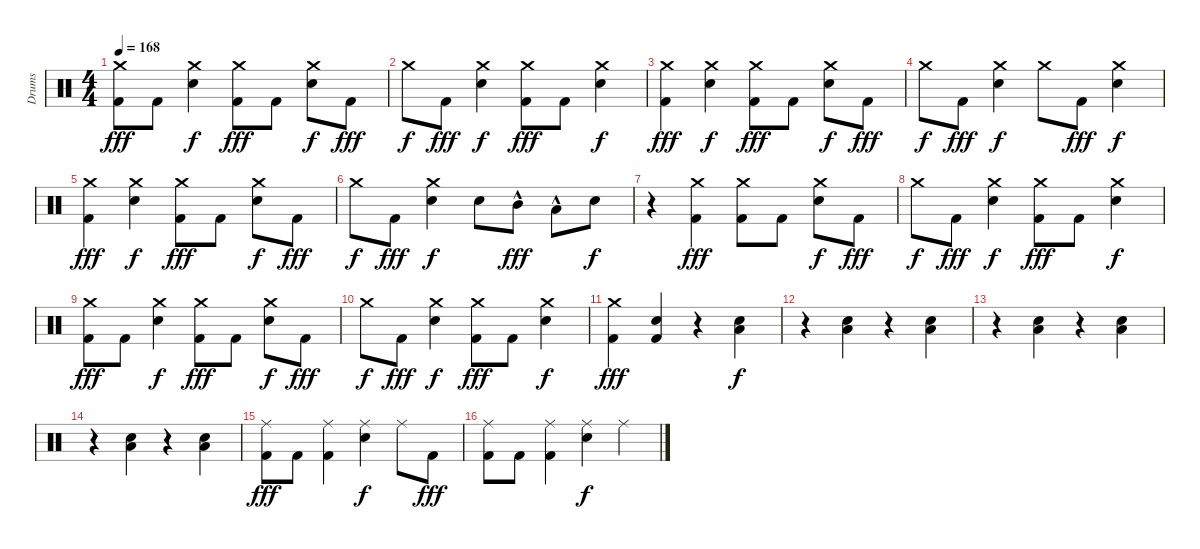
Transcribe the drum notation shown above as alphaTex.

\track ("Drums" "Drums") {instrument percussion}
\staff {score}
\articulation defaults
\ts (4 4)
\tempo 168
\clef neutral
\ks c
("Crash medium (hit)" "Kick (hit) 2").8{dy fff} "Kick (hit) 2".8 ("Crash medium (hit)" "Electric Snare (hit)").4{dy f} ("Crash medium (hit)" "Kick (hit) 2").8{dy fff} "Kick (hit) 2".8 ("Crash medium (hit)" "Electric Snare (hit)").8{dy f} "Kick (hit) 2".8{dy fff} |
"Crash medium (hit)".8{dy f} "Kick (hit) 2".8{dy fff} ("Crash medium (hit)" "Electric Snare (hit)").4{dy f} ("Crash medium (hit)" "Kick (hit) 2").8{dy fff} "Kick (hit) 2".8 ("Crash medium (hit)" "Electric Snare (hit)").4{dy f} |
("Crash medium (hit)" "Kick (hit) 2").4{dy fff} ("Crash medium (hit)" "Electric Snare (hit)").4{dy f} ("Crash medium (hit)" "Kick (hit) 2").8{dy fff} "Kick (hit) 2".8 ("Crash medium (hit)" "Electric Snare (hit)").8{dy f} "Kick (hit) 2".8{dy fff} |
"Crash medium (hit)".8{dy f} "Kick (hit) 2".8{dy fff} ("Crash medium (hit)" "Electric Snare (hit)").4{dy f} "Crash medium (hit)".8 "Kick (hit) 2".8{dy fff} ("Crash medium (hit)" "Electric Snare (hit)").4{dy f} |
("Crash medium (hit)" "Kick (hit) 2").4{dy fff} ("Crash medium (hit)" "Electric Snare (hit)").4{dy f} ("Crash medium (hit)" "Kick (hit) 2").8{dy fff} "Kick (hit) 2".8 ("Crash medium (hit)" "Electric Snare (hit)").8{dy f} "Kick (hit) 2".8{dy fff} |
"Crash medium (hit)".8{dy f} "Kick (hit) 2".8{dy fff} ("Crash medium (hit)" "Electric Snare (hit)").4{dy f} "Electric Snare (hit)".8 "Mid Tom (hit)"{hac}.8{dy fff} "Low Tom (hit)"{hac}.8 "Electric Snare (hit)".8{dy f} |
r.4 ("Crash medium (hit)" "Kick (hit) 2").4{dy fff} ("Crash medium (hit)" "Kick (hit) 2").8 "Kick (hit) 2".8 ("Crash medium (hit)" "Electric Snare (hit)").8{dy f} "Kick (hit) 2".8{dy fff} |
"Crash medium (hit)".8{dy f} "Kick (hit) 2".8{dy fff} ("Crash medium (hit)" "Electric Snare (hit)").4{dy f} ("Crash medium (hit)" "Kick (hit) 2").8{dy fff} "Kick (hit) 2".8 ("Crash medium (hit)" "Electric Snare (hit)").4{dy f} |
("Crash medium (hit)" "Kick (hit) 2").8{dy fff} "Kick (hit) 2".8 ("Crash medium (hit)" "Electric Snare (hit)").4{dy f} ("Crash medium (hit)" "Kick (hit) 2").8{dy fff} "Kick (hit) 2".8 ("Crash medium (hit)" "Electric Snare (hit)").8{dy f} "Kick (hit) 2".8{dy fff} |
"Crash medium (hit)".8{dy f} "Kick (hit) 2".8{dy fff} ("Crash medium (hit)" "Electric Snare (hit)").4{dy f} ("Crash medium (hit)" "Kick (hit) 2").8{dy fff} "Kick (hit) 2".8 ("Crash medium (hit)" "Electric Snare (hit)").4{dy f} |
("Crash medium (hit)" "Kick (hit) 2").4{dy fff} ("Electric Snare (hit)" "Kick (hit) 2").4 r.4 ("Low Tom (hit)" "Electric Snare (hit)").4{dy f} |
r.4 ("Low Tom (hit)" "Electric Snare (hit)").4 r.4 ("Low Tom (hit)" "Electric Snare (hit)").4 |
r.4 ("Low Tom (hit)" "Electric Snare (hit)").4 r.4 ("Low Tom (hit)" "Electric Snare (hit)").4 |
r.4 ("Low Tom (hit)" "Electric Snare (hit)").4 r.4 ("Low Tom (hit)" "Electric Snare (hit)").4 |
("Ride (middle)" "Kick (hit) 2").8{dy fff} "Kick (hit) 2".8 ("Ride (middle)" "Kick (hit) 2").4 ("Ride (middle)" "Electric Snare (hit)").4{dy f} "Ride (middle)".8 "Kick (hit) 2".8{dy fff} |
("Ride (middle)" "Kick (hit) 2").8 "Kick (hit) 2".8 ("Ride (middle)" "Kick (hit) 2").4 ("Ride (middle)" "Electric Snare (hit)").4{dy f} "Ride (middle)".4
